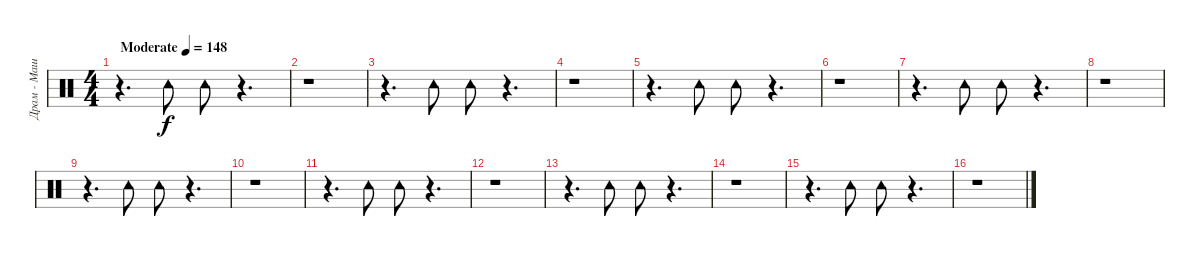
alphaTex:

\track ("Драм - Машина 2" "Драм - Маш") {instrument percussion}
\staff {score}
\articulation defaults
\ts (4 4)
\tempo (148 "Moderate")
\clef neutral
\ks c
r.4{d dy f} "Tambourine (hit)".8 "Tambourine (hit)".8 r.4{d} |
r.1 |
r.4{d} "Tambourine (hit)".8 "Tambourine (hit)".8 r.4{d} |
r.1 |
r.4{d} "Tambourine (hit)".8 "Tambourine (hit)".8 r.4{d} |
r.1 |
r.4{d} "Tambourine (hit)".8 "Tambourine (hit)".8 r.4{d} |
r.1 |
r.4{d} "Tambourine (hit)".8 "Tambourine (hit)".8 r.4{d} |
r.1 |
r.4{d} "Tambourine (hit)".8 "Tambourine (hit)".8 r.4{d} |
r.1 |
r.4{d} "Tambourine (hit)".8 "Tambourine (hit)".8 r.4{d} |
r.1 |
r.4{d} "Tambourine (hit)".8 "Tambourine (hit)".8 r.4{d} |
r.1
